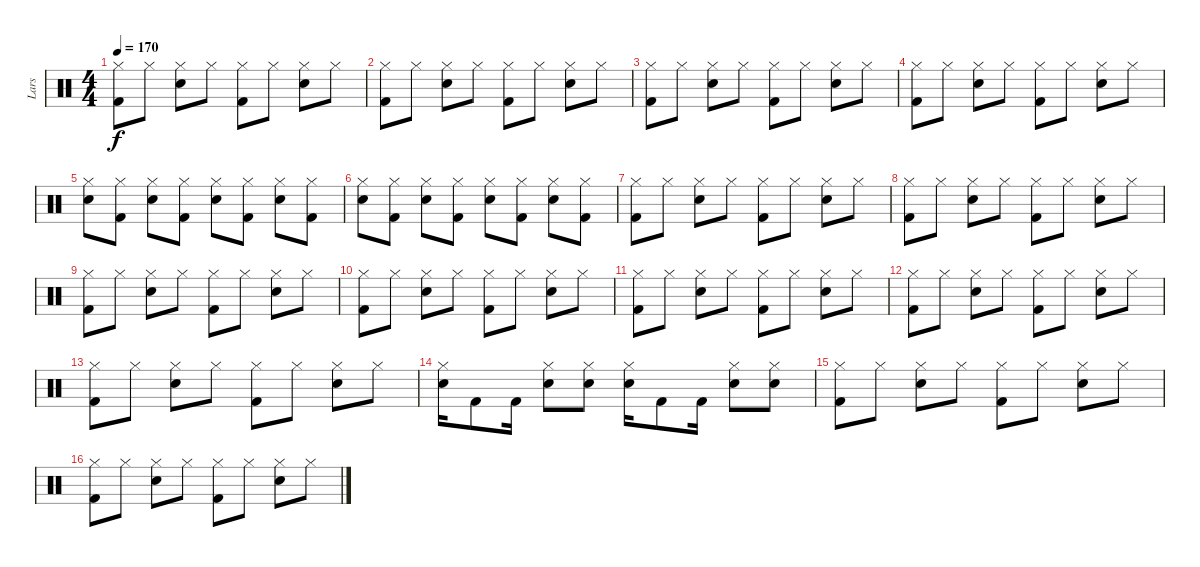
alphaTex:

\track ("Lars" "Lars") {instrument percussion}
\staff {score}
\articulation defaults
\ts (4 4)
\tempo 170
\clef neutral
\ks c
("Hi-Hat (closed)" "Kick (hit) 2").8{dy f} "Hi-Hat (closed)".8 ("Hi-Hat (closed)" "Electric Snare (hit)").8 "Hi-Hat (closed)".8 ("Hi-Hat (closed)" "Kick (hit) 2").8 "Hi-Hat (closed)".8 ("Hi-Hat (closed)" "Electric Snare (hit)").8 "Hi-Hat (closed)".8 |
("Hi-Hat (closed)" "Kick (hit) 2").8 "Hi-Hat (closed)".8 ("Hi-Hat (closed)" "Electric Snare (hit)").8 "Hi-Hat (closed)".8 ("Hi-Hat (closed)" "Kick (hit) 2").8 "Hi-Hat (closed)".8 ("Hi-Hat (closed)" "Electric Snare (hit)").8 "Hi-Hat (closed)".8 |
("Hi-Hat (closed)" "Kick (hit) 2").8 "Hi-Hat (closed)".8 ("Hi-Hat (closed)" "Electric Snare (hit)").8 "Hi-Hat (closed)".8 ("Hi-Hat (closed)" "Kick (hit) 2").8 "Hi-Hat (closed)".8 ("Hi-Hat (closed)" "Electric Snare (hit)").8 "Hi-Hat (closed)".8 |
("Hi-Hat (closed)" "Kick (hit) 2").8 "Hi-Hat (closed)".8 ("Hi-Hat (closed)" "Electric Snare (hit)").8 "Hi-Hat (closed)".8 ("Hi-Hat (closed)" "Kick (hit) 2").8 "Hi-Hat (closed)".8 ("Hi-Hat (closed)" "Electric Snare (hit)").8 "Hi-Hat (closed)".8 |
("Hi-Hat (closed)" "Electric Snare (hit)").8 ("Hi-Hat (closed)" "Kick (hit) 2").8 ("Hi-Hat (closed)" "Electric Snare (hit)").8 ("Hi-Hat (closed)" "Kick (hit) 2").8 ("Hi-Hat (closed)" "Electric Snare (hit)").8 ("Hi-Hat (closed)" "Kick (hit) 2").8 ("Hi-Hat (closed)" "Electric Snare (hit)").8 ("Hi-Hat (closed)" "Kick (hit) 2").8 |
("Hi-Hat (closed)" "Electric Snare (hit)").8 ("Hi-Hat (closed)" "Kick (hit) 2").8 ("Hi-Hat (closed)" "Electric Snare (hit)").8 ("Hi-Hat (closed)" "Kick (hit) 2").8 ("Hi-Hat (closed)" "Electric Snare (hit)").8 ("Hi-Hat (closed)" "Kick (hit) 2").8 ("Hi-Hat (closed)" "Electric Snare (hit)").8 ("Hi-Hat (closed)" "Kick (hit) 2").8 |
("Hi-Hat (closed)" "Kick (hit) 2").8 "Hi-Hat (closed)".8 ("Hi-Hat (closed)" "Electric Snare (hit)").8 "Hi-Hat (closed)".8 ("Hi-Hat (closed)" "Kick (hit) 2").8 "Hi-Hat (closed)".8 ("Hi-Hat (closed)" "Electric Snare (hit)").8 "Hi-Hat (closed)".8 |
("Hi-Hat (closed)" "Kick (hit) 2").8 "Hi-Hat (closed)".8 ("Hi-Hat (closed)" "Electric Snare (hit)").8 "Hi-Hat (closed)".8 ("Hi-Hat (closed)" "Kick (hit) 2").8 "Hi-Hat (closed)".8 ("Hi-Hat (closed)" "Electric Snare (hit)").8 "Hi-Hat (closed)".8 |
("Hi-Hat (closed)" "Kick (hit) 2").8 "Hi-Hat (closed)".8 ("Hi-Hat (closed)" "Electric Snare (hit)").8 "Hi-Hat (closed)".8 ("Hi-Hat (closed)" "Kick (hit) 2").8 "Hi-Hat (closed)".8 ("Hi-Hat (closed)" "Electric Snare (hit)").8 "Hi-Hat (closed)".8 |
("Hi-Hat (closed)" "Kick (hit) 2").8 "Hi-Hat (closed)".8 ("Hi-Hat (closed)" "Electric Snare (hit)").8 "Hi-Hat (closed)".8 ("Hi-Hat (closed)" "Kick (hit) 2").8 "Hi-Hat (closed)".8 ("Hi-Hat (closed)" "Electric Snare (hit)").8 "Hi-Hat (closed)".8 |
("Hi-Hat (closed)" "Kick (hit) 2").8 "Hi-Hat (closed)".8 ("Hi-Hat (closed)" "Electric Snare (hit)").8 "Hi-Hat (closed)".8 ("Hi-Hat (closed)" "Kick (hit) 2").8 "Hi-Hat (closed)".8 ("Hi-Hat (closed)" "Electric Snare (hit)").8 "Hi-Hat (closed)".8 |
("Hi-Hat (closed)" "Kick (hit) 2").8 "Hi-Hat (closed)".8 ("Hi-Hat (closed)" "Electric Snare (hit)").8 "Hi-Hat (closed)".8 ("Hi-Hat (closed)" "Kick (hit) 2").8 "Hi-Hat (closed)".8 ("Hi-Hat (closed)" "Electric Snare (hit)").8 "Hi-Hat (closed)".8 |
("Hi-Hat (closed)" "Kick (hit) 2").8 "Hi-Hat (closed)".8 ("Hi-Hat (closed)" "Electric Snare (hit)").8 "Hi-Hat (closed)".8 ("Hi-Hat (closed)" "Kick (hit) 2").8 "Hi-Hat (closed)".8 ("Hi-Hat (closed)" "Electric Snare (hit)").8 "Hi-Hat (closed)".8 |
("Hi-Hat (closed)" "Electric Snare (hit)").16 "Kick (hit) 2".8 "Kick (hit) 2".16 ("Hi-Hat (closed)" "Electric Snare (hit)").8 ("Hi-Hat (closed)" "Electric Snare (hit)").8 ("Hi-Hat (closed)" "Electric Snare (hit)").16 "Kick (hit) 2".8 "Kick (hit) 2".16 ("Hi-Hat (closed)" "Electric Snare (hit)").8 ("Hi-Hat (closed)" "Electric Snare (hit)").8 |
("Hi-Hat (closed)" "Kick (hit) 2").8 "Hi-Hat (closed)".8 ("Hi-Hat (closed)" "Electric Snare (hit)").8 "Hi-Hat (closed)".8 ("Hi-Hat (closed)" "Kick (hit) 2").8 "Hi-Hat (closed)".8 ("Hi-Hat (closed)" "Electric Snare (hit)").8 "Hi-Hat (closed)".8 |
("Hi-Hat (closed)" "Kick (hit) 2").8 "Hi-Hat (closed)".8 ("Hi-Hat (closed)" "Electric Snare (hit)").8 "Hi-Hat (closed)".8 ("Hi-Hat (closed)" "Kick (hit) 2").8 "Hi-Hat (closed)".8 ("Hi-Hat (closed)" "Electric Snare (hit)").8 "Hi-Hat (closed)".8
